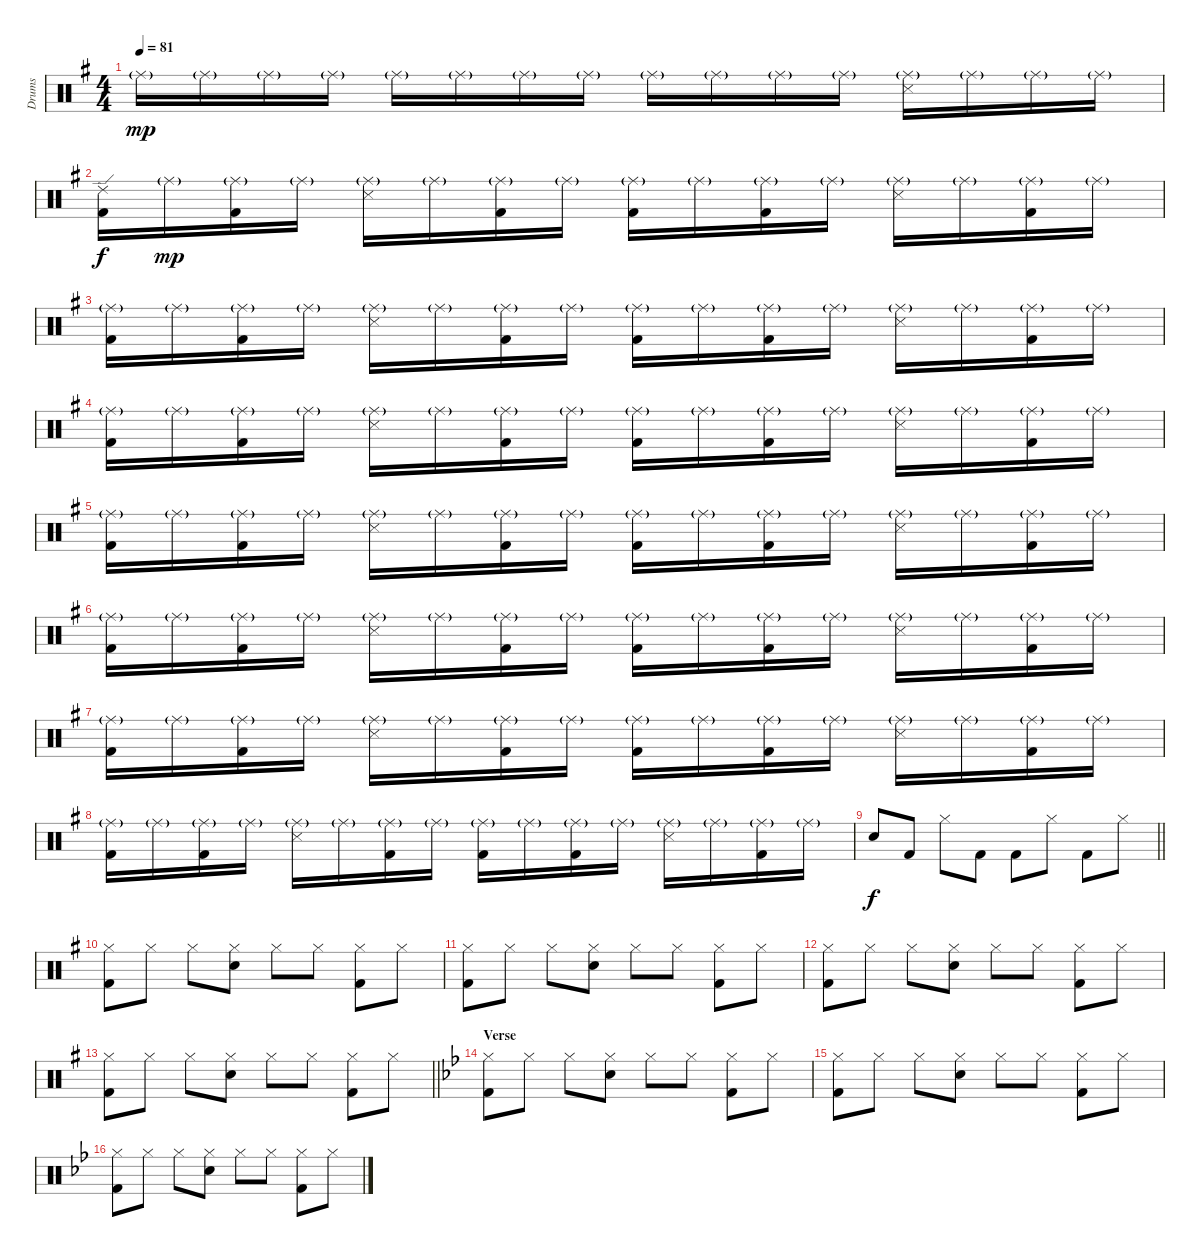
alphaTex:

\track ("Drums" "Drums") {instrument percussion}
\staff {score}
\articulation defaults
\ts (4 4)
\tempo 81
\clef neutral
\ks g "Ride (middle)"{g}.16{dy mp} "Ride (middle)"{g}.16 "Ride (middle)"{g}.16 "Ride (middle)"{g}.16 "Ride (middle)"{g}.16 "Ride (middle)"{g}.16 "Ride (middle)"{g}.16 "Ride (middle)"{g}.16 "Ride (middle)"{g}.16 "Ride (middle)"{g}.16 "Ride (middle)"{g}.16 "Ride (middle)"{g}.16
("Ride (middle)"{g} "Snare (side stick) 3").16 "Ride (middle)"{g}.16 "Ride (middle)"{g}.16 "Ride (middle)"{g}.16 |
("Ride (edge) 2" "Kick (hit) 2").16{dy f} "Ride (middle)"{g}.16{dy mp} ("Ride (middle)"{g} "Kick (hit) 2").16 "Ride (middle)"{g}.16 ("Ride (middle)"{g} "Snare (side stick) 3").16 "Ride (middle)"{g}.16 ("Ride (middle)"{g} "Kick (hit) 2").16 "Ride (middle)"{g}.16 ("Ride (middle)"{g} "Kick (hit) 2").16 "Ride (middle)"{g}.16 ("Ride (middle)"{g} "Kick (hit) 2").16 "Ride (middle)"{g}.16 ("Ride (middle)"{g} "Snare (side stick) 3").16 "Ride (middle)"{g}.16 ("Ride (middle)"{g} "Kick (hit) 2").16 "Ride (middle)"{g}.16 |
("Ride (middle)"{g} "Kick (hit) 2").16 "Ride (middle)"{g}.16 ("Ride (middle)"{g} "Kick (hit) 2").16 "Ride (middle)"{g}.16 ("Ride (middle)"{g} "Snare (side stick) 3").16 "Ride (middle)"{g}.16 ("Ride (middle)"{g} "Kick (hit) 2").16 "Ride (middle)"{g}.16 ("Ride (middle)"{g} "Kick (hit) 2").16 "Ride (middle)"{g}.16 ("Ride (middle)"{g} "Kick (hit) 2").16 "Ride (middle)"{g}.16 ("Ride (middle)"{g} "Snare (side stick) 3").16 "Ride (middle)"{g}.16 ("Ride (middle)"{g} "Kick (hit) 2").16 "Ride (middle)"{g}.16 |
("Ride (middle)"{g} "Kick (hit) 2").16 "Ride (middle)"{g}.16 ("Ride (middle)"{g} "Kick (hit) 2").16 "Ride (middle)"{g}.16 ("Ride (middle)"{g} "Snare (side stick) 3").16 "Ride (middle)"{g}.16 ("Ride (middle)"{g} "Kick (hit) 2").16 "Ride (middle)"{g}.16 ("Ride (middle)"{g} "Kick (hit) 2").16 "Ride (middle)"{g}.16 ("Ride (middle)"{g} "Kick (hit) 2").16 "Ride (middle)"{g}.16 ("Ride (middle)"{g} "Snare (side stick) 3").16 "Ride (middle)"{g}.16 ("Ride (middle)"{g} "Kick (hit) 2").16 "Ride (middle)"{g}.16 |
("Ride (middle)"{g} "Kick (hit) 2").16 "Ride (middle)"{g}.16 ("Ride (middle)"{g} "Kick (hit) 2").16 "Ride (middle)"{g}.16 ("Ride (middle)"{g} "Snare (side stick) 3").16 "Ride (middle)"{g}.16 ("Ride (middle)"{g} "Kick (hit) 2").16 "Ride (middle)"{g}.16 ("Ride (middle)"{g} "Kick (hit) 2").16 "Ride (middle)"{g}.16 ("Ride (middle)"{g} "Kick (hit) 2").16 "Ride (middle)"{g}.16 ("Ride (middle)"{g} "Snare (side stick) 3").16 "Ride (middle)"{g}.16 ("Ride (middle)"{g} "Kick (hit) 2").16 "Ride (middle)"{g}.16 |
("Ride (middle)"{g} "Kick (hit) 2").16 "Ride (middle)"{g}.16 ("Ride (middle)"{g} "Kick (hit) 2").16 "Ride (middle)"{g}.16 ("Ride (middle)"{g} "Snare (side stick) 3").16 "Ride (middle)"{g}.16 ("Ride (middle)"{g} "Kick (hit) 2").16 "Ride (middle)"{g}.16 ("Ride (middle)"{g} "Kick (hit) 2").16 "Ride (middle)"{g}.16 ("Ride (middle)"{g} "Kick (hit) 2").16 "Ride (middle)"{g}.16 ("Ride (middle)"{g} "Snare (side stick) 3").16 "Ride (middle)"{g}.16 ("Ride (middle)"{g} "Kick (hit) 2").16 "Ride (middle)"{g}.16 |
("Ride (middle)"{g} "Kick (hit) 2").16 "Ride (middle)"{g}.16 ("Ride (middle)"{g} "Kick (hit) 2").16 "Ride (middle)"{g}.16 ("Ride (middle)"{g} "Snare (side stick) 3").16 "Ride (middle)"{g}.16 ("Ride (middle)"{g} "Kick (hit) 2").16 "Ride (middle)"{g}.16 ("Ride (middle)"{g} "Kick (hit) 2").16 "Ride (middle)"{g}.16 ("Ride (middle)"{g} "Kick (hit) 2").16 "Ride (middle)"{g}.16 ("Ride (middle)"{g} "Snare (side stick) 3").16 "Ride (middle)"{g}.16 ("Ride (middle)"{g} "Kick (hit) 2").16 "Ride (middle)"{g}.16 |
("Ride (middle)"{g} "Kick (hit) 2").16 "Ride (middle)"{g}.16 ("Ride (middle)"{g} "Kick (hit) 2").16 "Ride (middle)"{g}.16 ("Ride (middle)"{g} "Snare (side stick) 3").16 "Ride (middle)"{g}.16 ("Ride (middle)"{g} "Kick (hit) 2").16 "Ride (middle)"{g}.16 ("Ride (middle)"{g} "Kick (hit) 2").16 "Ride (middle)"{g}.16 ("Ride (middle)"{g} "Kick (hit) 2").16 "Ride (middle)"{g}.16 ("Ride (middle)"{g} "Snare (side stick) 3").16 "Ride (middle)"{g}.16 ("Ride (middle)"{g} "Kick (hit) 2").16 "Ride (middle)"{g}.16 |
\barLineRight lightlight "Electric Snare (hit)".8{dy f} "Kick (hit) 2".8 "Hi-Hat (closed)".8 "Kick (hit) 2".8 "Kick (hit) 2".8 "Hi-Hat (closed)".8 "Kick (hit) 2".8 "Hi-Hat (closed)".8
|
\section ("" "")
("Hi-Hat (closed)" "Kick (hit) 2").8 "Hi-Hat (closed)".8 "Hi-Hat (closed)".8 ("Hi-Hat (closed)" "Electric Snare (hit)").8 "Hi-Hat (closed)".8 "Hi-Hat (closed)".8 ("Hi-Hat (closed)" "Kick (hit) 2").8 "Hi-Hat (closed)".8 |
("Hi-Hat (closed)" "Kick (hit) 2").8 "Hi-Hat (closed)".8 "Hi-Hat (closed)".8 ("Hi-Hat (closed)" "Electric Snare (hit)").8 "Hi-Hat (closed)".8 "Hi-Hat (closed)".8 ("Hi-Hat (closed)" "Kick (hit) 2").8 "Hi-Hat (closed)".8 |
("Hi-Hat (closed)" "Kick (hit) 2").8 "Hi-Hat (closed)".8 "Hi-Hat (closed)".8 ("Hi-Hat (closed)" "Electric Snare (hit)").8 "Hi-Hat (closed)".8 "Hi-Hat (closed)".8 ("Hi-Hat (closed)" "Kick (hit) 2").8 "Hi-Hat (closed)".8 |
\barLineRight lightlight
("Hi-Hat (closed)" "Kick (hit) 2").8 "Hi-Hat (closed)".8 "Hi-Hat (closed)".8 ("Hi-Hat (closed)" "Electric Snare (hit)").8 "Hi-Hat (closed)".8 "Hi-Hat (closed)".8 ("Hi-Hat (closed)" "Kick (hit) 2").8 "Hi-Hat (closed)".8 |
\section ("" "Verse")
\ks gminor
("Hi-Hat (closed)" "Kick (hit) 2").8 "Hi-Hat (closed)".8 "Hi-Hat (closed)".8 ("Hi-Hat (closed)" "Electric Snare (hit)").8 "Hi-Hat (closed)".8 "Hi-Hat (closed)".8 ("Hi-Hat (closed)" "Kick (hit) 2").8 "Hi-Hat (closed)".8 |
("Hi-Hat (closed)" "Kick (hit) 2").8 "Hi-Hat (closed)".8 "Hi-Hat (closed)".8 ("Hi-Hat (closed)" "Electric Snare (hit)").8 "Hi-Hat (closed)".8 "Hi-Hat (closed)".8 ("Hi-Hat (closed)" "Kick (hit) 2").8 "Hi-Hat (closed)".8 |
("Hi-Hat (closed)" "Kick (hit) 2").8 "Hi-Hat (closed)".8 "Hi-Hat (closed)".8 ("Hi-Hat (closed)" "Electric Snare (hit)").8 "Hi-Hat (closed)".8 "Hi-Hat (closed)".8 ("Hi-Hat (closed)" "Kick (hit) 2").8 "Hi-Hat (closed)".8
